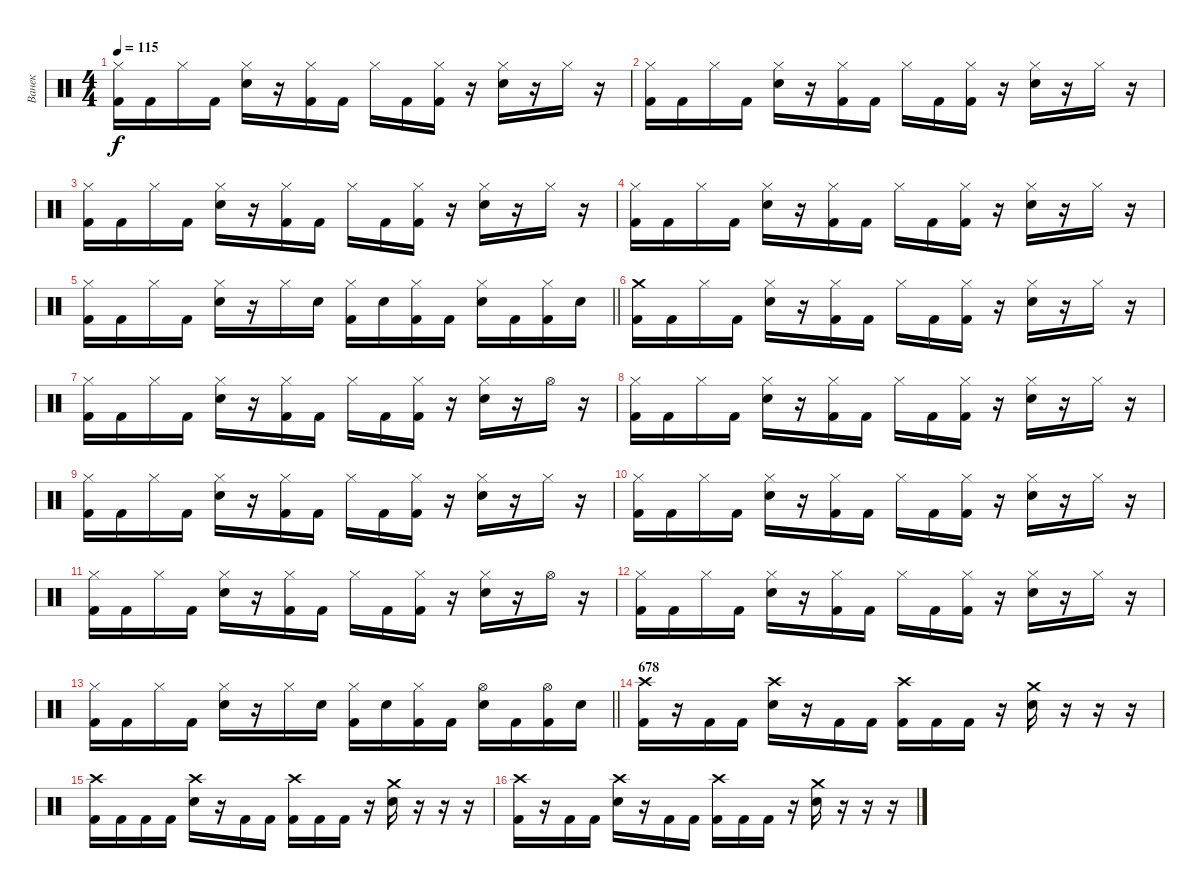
\track ("Ванек" "Ванек") {instrument percussion}
\staff {score}
\articulation defaults
\ts (4 4)
\tempo 115
\clef neutral
\ks c
("Hi-Hat (closed)" "Kick (hit) 2").16{dy f} "Kick (hit) 2".16 "Hi-Hat (closed)".16 "Kick (hit) 2".16 ("Hi-Hat (closed)" "Snare (hit) 2").16 r.16 ("Hi-Hat (closed)" "Kick (hit) 2").16 "Kick (hit) 2".16 "Hi-Hat (closed)".16 "Kick (hit) 2".16 ("Hi-Hat (closed)" "Kick (hit) 2").16 r.16 ("Hi-Hat (closed)" "Snare (hit) 2").16 r.16 "Hi-Hat (closed)".16 r.16 |
("Hi-Hat (closed)" "Kick (hit) 2").16 "Kick (hit) 2".16 "Hi-Hat (closed)".16 "Kick (hit) 2".16 ("Hi-Hat (closed)" "Snare (hit) 2").16 r.16 ("Hi-Hat (closed)" "Kick (hit) 2").16 "Kick (hit) 2".16 "Hi-Hat (closed)".16 "Kick (hit) 2".16 ("Hi-Hat (closed)" "Kick (hit) 2").16 r.16 ("Hi-Hat (closed)" "Snare (hit) 2").16 r.16 "Hi-Hat (closed)".16 r.16 |
("Hi-Hat (closed)" "Kick (hit) 2").16 "Kick (hit) 2".16 "Hi-Hat (closed)".16 "Kick (hit) 2".16 ("Hi-Hat (closed)" "Snare (hit) 2").16 r.16 ("Hi-Hat (closed)" "Kick (hit) 2").16 "Kick (hit) 2".16 "Hi-Hat (closed)".16 "Kick (hit) 2".16 ("Hi-Hat (closed)" "Kick (hit) 2").16 r.16 ("Hi-Hat (closed)" "Snare (hit) 2").16 r.16 "Hi-Hat (closed)".16 r.16 |
("Hi-Hat (closed)" "Kick (hit) 2").16 "Kick (hit) 2".16 "Hi-Hat (closed)".16 "Kick (hit) 2".16 ("Hi-Hat (closed)" "Snare (hit) 2").16 r.16 ("Hi-Hat (closed)" "Kick (hit) 2").16 "Kick (hit) 2".16 "Hi-Hat (closed)".16 "Kick (hit) 2".16 ("Hi-Hat (closed)" "Kick (hit) 2").16 r.16 ("Hi-Hat (closed)" "Snare (hit) 2").16 r.16 "Hi-Hat (closed)".16 r.16 |
\barLineRight lightlight
("Hi-Hat (closed)" "Kick (hit) 2").16 "Kick (hit) 2".16 "Hi-Hat (closed)".16 "Kick (hit) 2".16 ("Hi-Hat (closed)" "Snare (hit) 2").16 r.16 "Hi-Hat (closed)".16 "Snare (hit) 2".16 ("Hi-Hat (closed)" "Kick (hit) 2").16 "Snare (hit) 2".16 ("Hi-Hat (closed)" "Kick (hit) 2").16 "Kick (hit) 2".16 ("Hi-Hat (closed)" "Snare (hit) 2").16 "Kick (hit) 2".16 ("Hi-Hat (closed)" "Kick (hit) 2").16 "Snare (hit) 2".16 |
("Crash medium (hit)" "Kick (hit) 2").16 "Kick (hit) 2".16 "Hi-Hat (closed)".16 "Kick (hit) 2".16 ("Hi-Hat (closed)" "Snare (hit) 2").16 r.16 ("Hi-Hat (closed)" "Kick (hit) 2").16 "Kick (hit) 2".16 "Hi-Hat (closed)".16 "Kick (hit) 2".16 ("Hi-Hat (closed)" "Kick (hit) 2").16 r.16 ("Hi-Hat (closed)" "Snare (hit) 2").16 r.16 "Hi-Hat (closed)".16 r.16 |
("Hi-Hat (closed)" "Kick (hit) 2").16 "Kick (hit) 2".16 "Hi-Hat (closed)".16 "Kick (hit) 2".16 ("Hi-Hat (closed)" "Snare (hit) 2").16 r.16 ("Hi-Hat (closed)" "Kick (hit) 2").16 "Kick (hit) 2".16 "Hi-Hat (closed)".16 "Kick (hit) 2".16 ("Hi-Hat (closed)" "Kick (hit) 2").16 r.16 ("Hi-Hat (closed)" "Snare (hit) 2").16 r.16 "Hi-Hat (open)".16 r.16 |
("Hi-Hat (closed)" "Kick (hit) 2").16 "Kick (hit) 2".16 "Hi-Hat (closed)".16 "Kick (hit) 2".16 ("Hi-Hat (closed)" "Snare (hit) 2").16 r.16 ("Hi-Hat (closed)" "Kick (hit) 2").16 "Kick (hit) 2".16 "Hi-Hat (closed)".16 "Kick (hit) 2".16 ("Hi-Hat (closed)" "Kick (hit) 2").16 r.16 ("Hi-Hat (closed)" "Snare (hit) 2").16 r.16 "Hi-Hat (closed)".16 r.16 |
("Hi-Hat (closed)" "Kick (hit) 2").16 "Kick (hit) 2".16 "Hi-Hat (closed)".16 "Kick (hit) 2".16 ("Hi-Hat (closed)" "Snare (hit) 2").16 r.16 ("Hi-Hat (closed)" "Kick (hit) 2").16 "Kick (hit) 2".16 "Hi-Hat (closed)".16 "Kick (hit) 2".16 ("Hi-Hat (closed)" "Kick (hit) 2").16 r.16 ("Hi-Hat (closed)" "Snare (hit) 2").16 r.16 "Hi-Hat (closed)".16 r.16 |
("Hi-Hat (closed)" "Kick (hit) 2").16 "Kick (hit) 2".16 "Hi-Hat (closed)".16 "Kick (hit) 2".16 ("Hi-Hat (closed)" "Snare (hit) 2").16 r.16 ("Hi-Hat (closed)" "Kick (hit) 2").16 "Kick (hit) 2".16 "Hi-Hat (closed)".16 "Kick (hit) 2".16 ("Hi-Hat (closed)" "Kick (hit) 2").16 r.16 ("Hi-Hat (closed)" "Snare (hit) 2").16 r.16 "Hi-Hat (closed)".16 r.16 |
("Hi-Hat (closed)" "Kick (hit) 2").16 "Kick (hit) 2".16 "Hi-Hat (closed)".16 "Kick (hit) 2".16 ("Hi-Hat (closed)" "Snare (hit) 2").16 r.16 ("Hi-Hat (closed)" "Kick (hit) 2").16 "Kick (hit) 2".16 "Hi-Hat (closed)".16 "Kick (hit) 2".16 ("Hi-Hat (closed)" "Kick (hit) 2").16 r.16 ("Hi-Hat (closed)" "Snare (hit) 2").16 r.16 "Hi-Hat (open)".16 r.16 |
("Hi-Hat (closed)" "Kick (hit) 2").16 "Kick (hit) 2".16 "Hi-Hat (closed)".16 "Kick (hit) 2".16 ("Hi-Hat (closed)" "Snare (hit) 2").16 r.16 ("Hi-Hat (closed)" "Kick (hit) 2").16 "Kick (hit) 2".16 "Hi-Hat (closed)".16 "Kick (hit) 2".16 ("Hi-Hat (closed)" "Kick (hit) 2").16 r.16 ("Hi-Hat (closed)" "Snare (hit) 2").16 r.16 "Hi-Hat (closed)".16 r.16 |
\barLineRight lightlight
("Hi-Hat (closed)" "Kick (hit) 2").16 "Kick (hit) 2".16 "Hi-Hat (closed)".16 "Kick (hit) 2".16 ("Hi-Hat (closed)" "Snare (hit) 2").16 r.16 "Hi-Hat (closed)".16 "Snare (hit) 2".16 ("Hi-Hat (closed)" "Kick (hit) 2").16 "Snare (hit) 2".16 ("Hi-Hat (closed)" "Kick (hit) 2").16 "Kick (hit) 2".16 ("Hi-Hat (open)" "Snare (hit) 2").16 "Kick (hit) 2".16 ("Hi-Hat (open)" "Kick (hit) 2").16 "Snare (hit) 2".16 |
\section ("" "678")
("Crash high (hit)" "Kick (hit) 2").16 r.16 "Kick (hit) 2".16 "Kick (hit) 2".16 ("Crash high (hit)" "Snare (hit) 2").16 r.16 "Kick (hit) 2".16 "Kick (hit) 2".16 ("Crash high (hit)" "Kick (hit) 2").16 "Kick (hit) 2".16 "Kick (hit) 2".16 r.16 ("Crash medium (hit)" "Snare (hit) 2").16 r.16 r.16 r.16 |
("Crash high (hit)" "Kick (hit) 2").16 "Kick (hit) 2".16 "Kick (hit) 2".16 "Kick (hit) 2".16 ("Crash high (hit)" "Snare (hit) 2").16 r.16 "Kick (hit) 2".16 "Kick (hit) 2".16 ("Crash high (hit)" "Kick (hit) 2").16 "Kick (hit) 2".16 "Kick (hit) 2".16 r.16 ("Crash medium (hit)" "Snare (hit) 2").16 r.16 r.16 r.16 |
("Crash high (hit)" "Kick (hit) 2").16 r.16 "Kick (hit) 2".16 "Kick (hit) 2".16 ("Crash high (hit)" "Snare (hit) 2").16 r.16 "Kick (hit) 2".16 "Kick (hit) 2".16 ("Crash high (hit)" "Kick (hit) 2").16 "Kick (hit) 2".16 "Kick (hit) 2".16 r.16 ("Crash medium (hit)" "Snare (hit) 2").16 r.16 r.16 r.16
